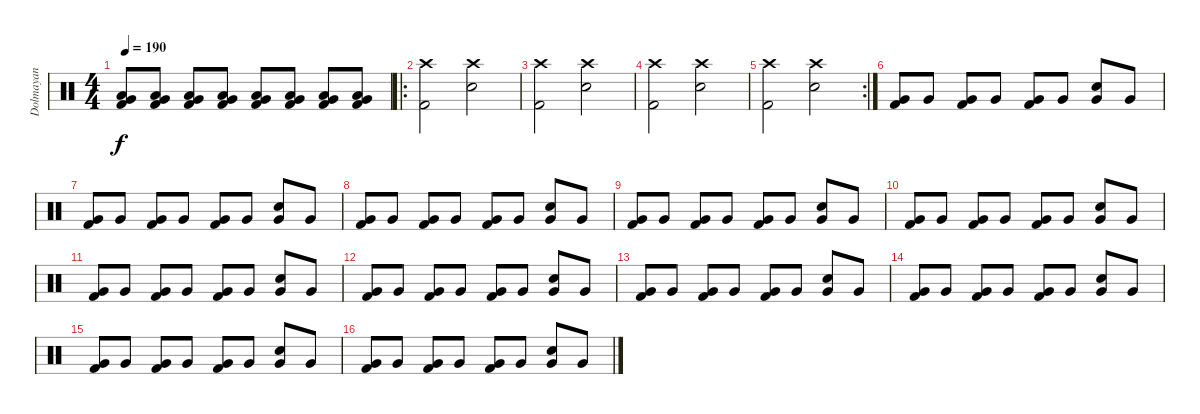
\track ("Dolmayan" "Dolmayan") {instrument percussion}
\staff {score}
\articulation defaults
\ts (4 4)
\tempo 190
\clef neutral
\ks c
("Very Low Tom (hit)" "Low Tom (hit)" "Kick (hit) 2").8{dy f} ("Very Low Tom (hit)" "Low Tom (hit)" "Kick (hit) 2").8 ("Very Low Tom (hit)" "Low Tom (hit)" "Kick (hit) 2").8 ("Very Low Tom (hit)" "Low Tom (hit)" "Kick (hit) 2").8 ("Very Low Tom (hit)" "Low Tom (hit)" "Kick (hit) 2").8 ("Very Low Tom (hit)" "Low Tom (hit)" "Kick (hit) 2").8 ("Very Low Tom (hit)" "Low Tom (hit)" "Kick (hit) 2").8 ("Very Low Tom (hit)" "Low Tom (hit)" "Kick (hit) 2").8 |
\ro
("Crash high (hit)" "Kick (hit) 2").2 ("Crash high (hit)" "Electric Snare (hit)").2 |
("Crash high (hit)" "Kick (hit) 2").2 ("Crash high (hit)" "Electric Snare (hit)").2 |
("Crash high (hit)" "Kick (hit) 2").2 ("Crash high (hit)" "Electric Snare (hit)").2 |
\rc 2
("Crash high (hit)" "Kick (hit) 2").2 ("Crash high (hit)" "Electric Snare (hit)").2 |
("Very Low Tom (hit)" "Kick (hit) 2").8 "Very Low Tom (hit)".8 ("Very Low Tom (hit)" "Kick (hit) 2").8 "Very Low Tom (hit)".8 ("Very Low Tom (hit)" "Kick (hit) 2").8 "Very Low Tom (hit)".8 ("Very Low Tom (hit)" "Electric Snare (hit)").8 "Very Low Tom (hit)".8 |
("Very Low Tom (hit)" "Kick (hit) 2").8 "Very Low Tom (hit)".8 ("Very Low Tom (hit)" "Kick (hit) 2").8 "Very Low Tom (hit)".8 ("Very Low Tom (hit)" "Kick (hit) 2").8 "Very Low Tom (hit)".8 ("Very Low Tom (hit)" "Electric Snare (hit)").8 "Very Low Tom (hit)".8 |
("Very Low Tom (hit)" "Kick (hit) 2").8 "Very Low Tom (hit)".8 ("Very Low Tom (hit)" "Kick (hit) 2").8 "Very Low Tom (hit)".8 ("Very Low Tom (hit)" "Kick (hit) 2").8 "Very Low Tom (hit)".8 ("Very Low Tom (hit)" "Electric Snare (hit)").8 "Very Low Tom (hit)".8 |
("Very Low Tom (hit)" "Kick (hit) 2").8 "Very Low Tom (hit)".8 ("Very Low Tom (hit)" "Kick (hit) 2").8 "Very Low Tom (hit)".8 ("Very Low Tom (hit)" "Kick (hit) 2").8 "Very Low Tom (hit)".8 ("Very Low Tom (hit)" "Electric Snare (hit)").8 "Very Low Tom (hit)".8 |
("Very Low Tom (hit)" "Kick (hit) 2").8 "Very Low Tom (hit)".8 ("Very Low Tom (hit)" "Kick (hit) 2").8 "Very Low Tom (hit)".8 ("Very Low Tom (hit)" "Kick (hit) 2").8 "Very Low Tom (hit)".8 ("Very Low Tom (hit)" "Electric Snare (hit)").8 "Very Low Tom (hit)".8 |
("Very Low Tom (hit)" "Kick (hit) 2").8 "Very Low Tom (hit)".8 ("Very Low Tom (hit)" "Kick (hit) 2").8 "Very Low Tom (hit)".8 ("Very Low Tom (hit)" "Kick (hit) 2").8 "Very Low Tom (hit)".8 ("Very Low Tom (hit)" "Electric Snare (hit)").8 "Very Low Tom (hit)".8 |
("Very Low Tom (hit)" "Kick (hit) 2").8 "Very Low Tom (hit)".8 ("Very Low Tom (hit)" "Kick (hit) 2").8 "Very Low Tom (hit)".8 ("Very Low Tom (hit)" "Kick (hit) 2").8 "Very Low Tom (hit)".8 ("Very Low Tom (hit)" "Electric Snare (hit)").8 "Very Low Tom (hit)".8 |
("Very Low Tom (hit)" "Kick (hit) 2").8 "Very Low Tom (hit)".8 ("Very Low Tom (hit)" "Kick (hit) 2").8 "Very Low Tom (hit)".8 ("Very Low Tom (hit)" "Kick (hit) 2").8 "Very Low Tom (hit)".8 ("Very Low Tom (hit)" "Electric Snare (hit)").8 "Very Low Tom (hit)".8 |
("Very Low Tom (hit)" "Kick (hit) 2").8 "Very Low Tom (hit)".8 ("Very Low Tom (hit)" "Kick (hit) 2").8 "Very Low Tom (hit)".8 ("Very Low Tom (hit)" "Kick (hit) 2").8 "Very Low Tom (hit)".8 ("Very Low Tom (hit)" "Electric Snare (hit)").8 "Very Low Tom (hit)".8 |
("Very Low Tom (hit)" "Kick (hit) 2").8 "Very Low Tom (hit)".8 ("Very Low Tom (hit)" "Kick (hit) 2").8 "Very Low Tom (hit)".8 ("Very Low Tom (hit)" "Kick (hit) 2").8 "Very Low Tom (hit)".8 ("Very Low Tom (hit)" "Electric Snare (hit)").8 "Very Low Tom (hit)".8 |
("Very Low Tom (hit)" "Kick (hit) 2").8 "Very Low Tom (hit)".8 ("Very Low Tom (hit)" "Kick (hit) 2").8 "Very Low Tom (hit)".8 ("Very Low Tom (hit)" "Kick (hit) 2").8 "Very Low Tom (hit)".8 ("Very Low Tom (hit)" "Electric Snare (hit)").8 "Very Low Tom (hit)".8
